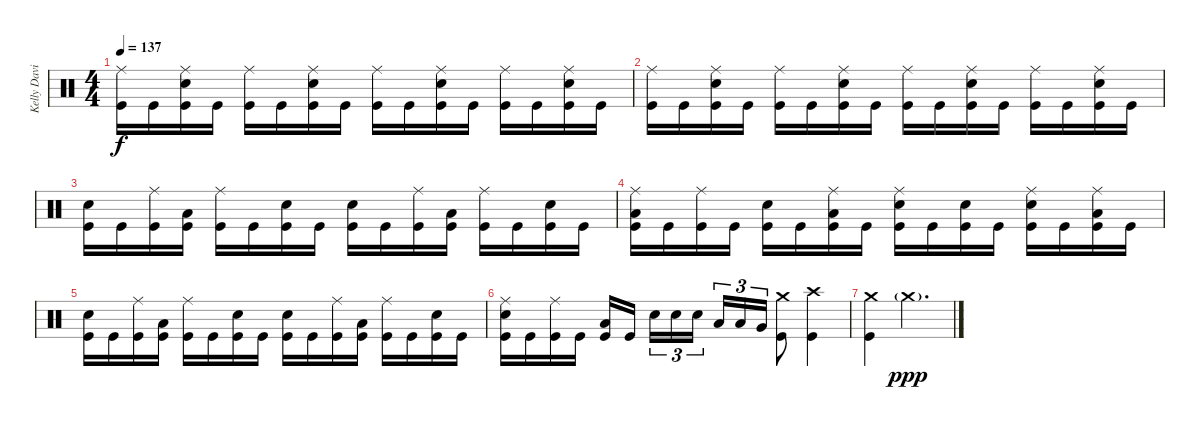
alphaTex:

\track ("Kelly David Smith" "Kelly Davi") {instrument percussion}
\staff {score}
\articulation defaults
\ts (4 4)
\tempo 137
\clef neutral
\ks c
("Ride (middle)" "Kick (hit)").16{dy f} "Kick (hit)".16 ("Ride (middle)" "Electric Snare (hit)" "Kick (hit)").16 "Kick (hit)".16 ("Ride (middle)" "Kick (hit)").16 "Kick (hit)".16 ("Ride (middle)" "Electric Snare (hit)" "Kick (hit)").16 "Kick (hit)".16 ("Ride (middle)" "Kick (hit)").16 "Kick (hit)".16 ("Ride (middle)" "Electric Snare (hit)" "Kick (hit)").16 "Kick (hit)".16 ("Ride (middle)" "Kick (hit)").16 "Kick (hit)".16 ("Ride (middle)" "Electric Snare (hit)" "Kick (hit)").16 "Kick (hit)".16 |
("Ride (middle)" "Kick (hit)").16 "Kick (hit)".16 ("Ride (middle)" "Electric Snare (hit)" "Kick (hit)").16 "Kick (hit)".16 ("Ride (middle)" "Kick (hit)").16 "Kick (hit)".16 ("Ride (middle)" "Electric Snare (hit)" "Kick (hit)").16 "Kick (hit)".16 ("Ride (middle)" "Kick (hit)").16 "Kick (hit)".16 ("Ride (middle)" "Electric Snare (hit)" "Kick (hit)").16 "Kick (hit)".16 ("Ride (middle)" "Kick (hit)").16 "Kick (hit)".16 ("Ride (middle)" "Electric Snare (hit)" "Kick (hit)").16 "Kick (hit)".16 |
("Electric Snare (hit)" "Kick (hit)").16 "Kick (hit)".16 ("Ride (middle)" "Kick (hit)").16 ("Low Floor Tom (hit)" "Kick (hit)").16 ("Ride (middle)" "Kick (hit)").16 "Kick (hit)".16 ("Electric Snare (hit)" "Kick (hit)").16 "Kick (hit)".16 ("Electric Snare (hit)" "Kick (hit)").16 "Kick (hit)".16 ("Ride (middle)" "Kick (hit)").16 ("Low Floor Tom (hit)" "Kick (hit)").16 ("Ride (middle)" "Kick (hit)").16 "Kick (hit)".16 ("Electric Snare (hit)" "Kick (hit)").16 "Kick (hit)".16 |
("Ride (middle)" "Low Floor Tom (hit)" "Kick (hit)").16 "Kick (hit)".16 ("Ride (middle)" "Kick (hit)").16 "Kick (hit)".16 ("Electric Snare (hit)" "Kick (hit)").16 "Kick (hit)".16 ("Ride (middle)" "Low Floor Tom (hit)" "Kick (hit)").16 "Kick (hit)".16 ("Ride (middle)" "Electric Snare (hit)" "Kick (hit)").16 "Kick (hit)".16 ("Electric Snare (hit)" "Kick (hit)").16 "Kick (hit)".16 ("Ride (middle)" "Electric Snare (hit)" "Kick (hit)").16 "Kick (hit)".16 ("Ride (middle)" "Low Floor Tom (hit)" "Kick (hit)").16 "Kick (hit)".16 |
("Electric Snare (hit)" "Kick (hit)").16 "Kick (hit)".16 ("Ride (middle)" "Kick (hit)").16 ("Low Floor Tom (hit)" "Kick (hit)").16 ("Ride (middle)" "Kick (hit)").16 "Kick (hit)".16 ("Electric Snare (hit)" "Kick (hit)").16 "Kick (hit)".16 ("Electric Snare (hit)" "Kick (hit)").16 "Kick (hit)".16 ("Ride (middle)" "Kick (hit)").16 ("Low Floor Tom (hit)" "Kick (hit)").16 ("Ride (middle)" "Kick (hit)").16 "Kick (hit)".16 ("Electric Snare (hit)" "Kick (hit)").16 "Kick (hit)".16 |
("Ride (middle)" "Electric Snare (hit)" "Kick (hit)").16 "Kick (hit)".16 ("Ride (middle)" "Kick (hit)").16 "Kick (hit)".16 ("Low Floor Tom (hit)" "Kick (hit)").16 "Kick (hit)".16{beam splitsecondary} "Electric Snare (hit)".16{tu (3 2)} "Electric Snare (hit)".16{tu (3 2)} "Electric Snare (hit)".16{tu (3 2)} "Low Tom (hit)".16{tu (3 2)} "Low Tom (hit)".16{tu (3 2)} "Very Low Tom (hit)".16{tu (3 2)} ("Crash medium (hit)" "Kick (hit)").8 ("Crash high (hit)" "Kick (hit)").4 |
("Crash medium (hit)" "Kick (hit)").4 "Crash medium (hit)"{g}.2{d dy ppp}
